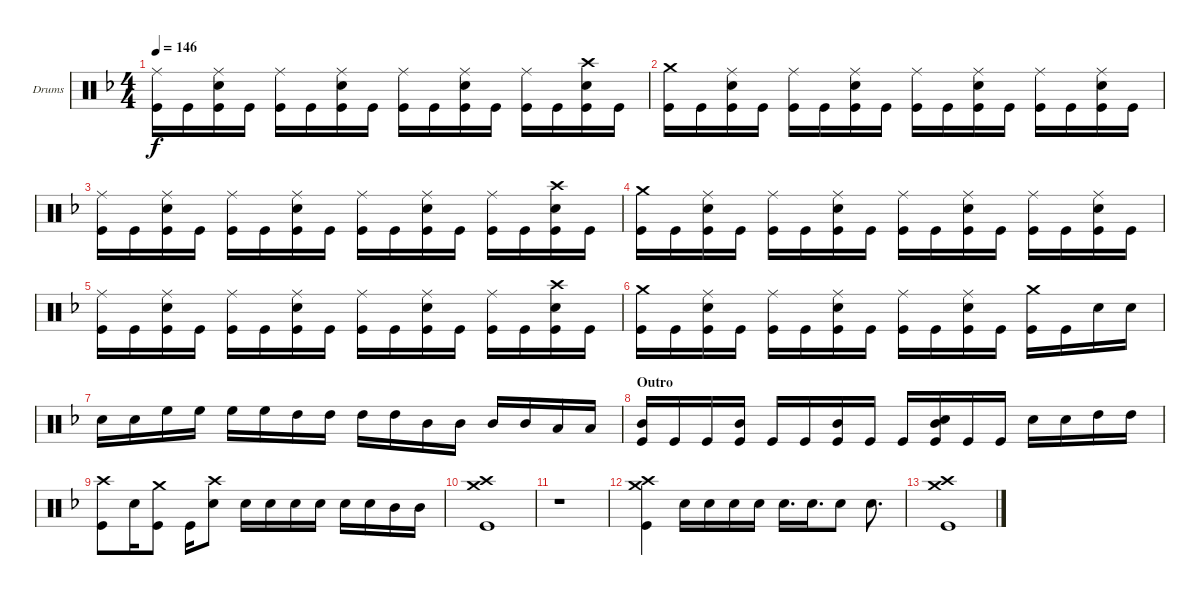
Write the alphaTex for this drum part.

\defaultSystemsLayout 4
\bracketExtendMode groupsimilarinstruments
\firstSystemTrackNameOrientation horizontal
\otherSystemsTrackNameOrientation horizontal
\track ("Gar Samuelson (Drums)" "Drums") {instrument percussion}
\staff {score}
\articulation defaults
\ts (4 4)
\tempo 146
\clef neutral
\scale
0.333333
\ks dminor
("Ride (middle)" "Kick (hit)").16{dy f} "Kick (hit)".16 ("Ride (middle)" "Snare (hit) 2" "Kick (hit)").16 "Kick (hit)".16 ("Ride (middle)" "Kick (hit)").16 "Kick (hit)".16 ("Ride (middle)" "Snare (hit) 2" "Kick (hit)").16 "Kick (hit)".16 ("Ride (middle)" "Kick (hit)").16 "Kick (hit)".16 ("Ride (middle)" "Snare (hit) 2" "Kick (hit)").16 "Kick (hit)".16 ("Ride (middle)" "Kick (hit)").16 "Kick (hit)".16 ("Crash high (hit)" "Snare (hit) 2" "Kick (hit)").16 "Kick (hit)".16 |
\scale
0.333333 ("Crash medium (hit)" "Kick (hit)").16 "Kick (hit)".16 ("Ride (middle)" "Snare (hit) 2" "Kick (hit)").16 "Kick (hit)".16 ("Ride (middle)" "Kick (hit)").16 "Kick (hit)".16 ("Ride (middle)" "Snare (hit) 2" "Kick (hit)").16 "Kick (hit)".16 ("Ride (middle)" "Kick (hit)").16 "Kick (hit)".16 ("Ride (middle)" "Snare (hit) 2" "Kick (hit)").16 "Kick (hit)".16 ("Ride (middle)" "Kick (hit)").16 "Kick (hit)".16 ("Ride (middle)" "Snare (hit) 2" "Kick (hit)").16 "Kick (hit)".16 |
\scale
0.333333 ("Ride (middle)" "Kick (hit)").16 "Kick (hit)".16 ("Ride (middle)" "Snare (hit) 2" "Kick (hit)").16 "Kick (hit)".16 ("Ride (middle)" "Kick (hit)").16 "Kick (hit)".16 ("Ride (middle)" "Snare (hit) 2" "Kick (hit)").16 "Kick (hit)".16 ("Ride (middle)" "Kick (hit)").16 "Kick (hit)".16 ("Ride (middle)" "Snare (hit) 2" "Kick (hit)").16 "Kick (hit)".16 ("Ride (middle)" "Kick (hit)").16 "Kick (hit)".16 ("Crash high (hit)" "Snare (hit) 2" "Kick (hit)").16 "Kick (hit)".16 |
\scale
0.333333 ("Crash medium (hit)" "Kick (hit)").16 "Kick (hit)".16 ("Ride (middle)" "Snare (hit) 2" "Kick (hit)").16 "Kick (hit)".16 ("Ride (middle)" "Kick (hit)").16 "Kick (hit)".16 ("Ride (middle)" "Snare (hit) 2" "Kick (hit)").16 "Kick (hit)".16 ("Ride (middle)" "Kick (hit)").16 "Kick (hit)".16 ("Ride (middle)" "Snare (hit) 2" "Kick (hit)").16 "Kick (hit)".16 ("Ride (middle)" "Kick (hit)").16 "Kick (hit)".16 ("Ride (middle)" "Snare (hit) 2" "Kick (hit)").16 "Kick (hit)".16 |
\scale
0.333333 ("Ride (middle)" "Kick (hit)").16 "Kick (hit)".16 ("Ride (middle)" "Snare (hit) 2" "Kick (hit)").16 "Kick (hit)".16 ("Ride (middle)" "Kick (hit)").16 "Kick (hit)".16 ("Ride (middle)" "Snare (hit) 2" "Kick (hit)").16 "Kick (hit)".16 ("Ride (middle)" "Kick (hit)").16 "Kick (hit)".16 ("Ride (middle)" "Snare (hit) 2" "Kick (hit)").16 "Kick (hit)".16 ("Ride (middle)" "Kick (hit)").16 "Kick (hit)".16 ("Crash high (hit)" "Snare (hit) 2" "Kick (hit)").16 "Kick (hit)".16 |
\scale
0.333333 ("Crash medium (hit)" "Kick (hit)").16 "Kick (hit)".16 ("Ride (middle)" "Snare (hit) 2" "Kick (hit)").16 "Kick (hit)".16 ("Ride (middle)" "Kick (hit)").16 "Kick (hit)".16 ("Ride (middle)" "Snare (hit) 2" "Kick (hit)").16 "Kick (hit)".16 ("Ride (middle)" "Kick (hit)").16 "Kick (hit)".16 ("Ride (middle)" "Snare (hit) 2" "Kick (hit)").16 "Kick (hit)".16 ("Crash medium (hit)" "Kick (hit)").16 "Kick (hit)".16 "Snare (hit) 2".16 "Snare (hit) 2".16 |
\scale
0.333333 "Snare (hit) 2".16 "Snare (hit) 2".16 "High Floor Tom (hit)".16 "High Floor Tom (hit)".16 "High Floor Tom (hit)".16 "High Floor Tom (hit)".16 "High Tom (hit)".16 "High Tom (hit)".16 "High Tom (hit)".16 "High Tom (hit)".16 "Mid Tom (hit)".16 "Mid Tom (hit)".16 "Mid Tom (hit)".16 "Mid Tom (hit)".16 "Low Tom (hit)".16 "Low Tom (hit)".16 |
\section ("" "Outro")
\scale
0.333333 ("Mid Tom (hit)" "Kick (hit)").16 "Kick (hit)".16 "Kick (hit)".16 ("Mid Tom (hit)" "Kick (hit)").16 "Kick (hit)".16 "Kick (hit)".16 ("Mid Tom (hit)" "Kick (hit)").16 "Kick (hit)".16 "Kick (hit)".16 ("Mid Tom (hit)" "Snare (hit) 2" "Kick (hit)").16 "Kick (hit)".16 "Kick (hit)".16 "Snare (hit) 2".16 "Snare (hit) 2".16 "High Tom (hit)".16 "High Tom (hit)".16 |
\scale
0.333333 ("Crash high (hit)" "Kick (hit)").8 "Snare (hit) 2".16 ("Crash medium (hit)" "Kick (hit)").8 "Kick (hit)".16 ("Crash high (hit)" "Snare (hit) 2").8 "Snare (hit) 2".16 "Snare (hit) 2".16 "Snare (hit) 2".16 "Snare (hit) 2".16 "Snare (hit) 2".16 "Snare (hit) 2".16 "Mid Tom (hit)".16 "Mid Tom (hit)".16 |
\scale
0.333333 ("Crash medium (hit)" "Crash high (hit)" "Kick (hit)").1 |
\scale
0.333333 r.1 |
\scale
0.333333 ("Crash medium (hit)" "Crash high (hit)" "Kick (hit)").4 "Snare (hit) 2".16 "Snare (hit) 2".16 "Snare (hit) 2".16 "Snare (hit) 2".16 "Snare (hit) 2".16{d} "Snare (hit) 2".16{d} "Snare (hit) 2".8 "Snare (hit) 2".8{d} |
("Crash medium (hit)" "Crash high (hit)" "Kick (hit)").1
